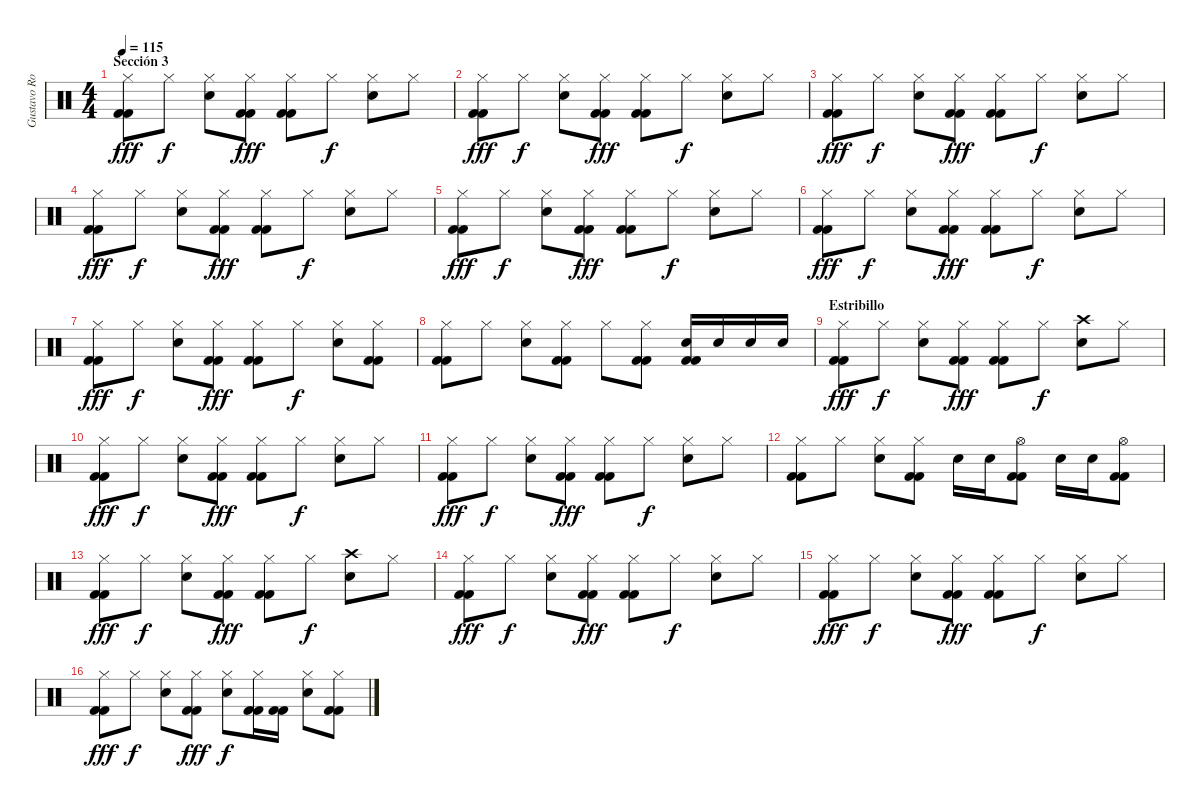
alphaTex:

\track ("Gustavo Rowek" "Gustavo Ro") {instrument percussion}
\staff {score}
\articulation defaults
\ts (4 4)
\section ("" "Sección 3")
\tempo 115
\clef neutral
\ks c
("Kick (hit) 2" "Kick (hit) 2" "Hi-Hat (closed)").8{dy fff} "Hi-Hat (closed)".8{dy f} ("Snare (hit) 2" "Hi-Hat (closed)").8 ("Kick (hit) 2" "Kick (hit) 2" "Hi-Hat (closed)").8{dy fff} ("Kick (hit) 2" "Kick (hit) 2" "Hi-Hat (closed)").8 "Hi-Hat (closed)".8{dy f} ("Snare (hit) 2" "Hi-Hat (closed)").8 "Hi-Hat (closed)".8 |
("Kick (hit) 2" "Kick (hit) 2" "Hi-Hat (closed)").8{dy fff} "Hi-Hat (closed)".8{dy f} ("Snare (hit) 2" "Hi-Hat (closed)").8 ("Kick (hit) 2" "Kick (hit) 2" "Hi-Hat (closed)").8{dy fff} ("Kick (hit) 2" "Kick (hit) 2" "Hi-Hat (closed)").8 "Hi-Hat (closed)".8{dy f} ("Snare (hit) 2" "Hi-Hat (closed)").8 "Hi-Hat (closed)".8 |
("Kick (hit) 2" "Kick (hit) 2" "Hi-Hat (closed)").8{dy fff} "Hi-Hat (closed)".8{dy f} ("Snare (hit) 2" "Hi-Hat (closed)").8 ("Kick (hit) 2" "Kick (hit) 2" "Hi-Hat (closed)").8{dy fff} ("Kick (hit) 2" "Kick (hit) 2" "Hi-Hat (closed)").8 "Hi-Hat (closed)".8{dy f} ("Snare (hit) 2" "Hi-Hat (closed)").8 "Hi-Hat (closed)".8 |
("Kick (hit) 2" "Kick (hit) 2" "Hi-Hat (closed)").8{dy fff} "Hi-Hat (closed)".8{dy f} ("Snare (hit) 2" "Hi-Hat (closed)").8 ("Kick (hit) 2" "Kick (hit) 2" "Hi-Hat (closed)").8{dy fff} ("Kick (hit) 2" "Kick (hit) 2" "Hi-Hat (closed)").8 "Hi-Hat (closed)".8{dy f} ("Snare (hit) 2" "Hi-Hat (closed)").8 "Hi-Hat (closed)".8 |
("Kick (hit) 2" "Kick (hit) 2" "Hi-Hat (closed)").8{dy fff} "Hi-Hat (closed)".8{dy f} ("Snare (hit) 2" "Hi-Hat (closed)").8 ("Kick (hit) 2" "Kick (hit) 2" "Hi-Hat (closed)").8{dy fff} ("Kick (hit) 2" "Kick (hit) 2" "Hi-Hat (closed)").8 "Hi-Hat (closed)".8{dy f} ("Snare (hit) 2" "Hi-Hat (closed)").8 "Hi-Hat (closed)".8 |
("Kick (hit) 2" "Kick (hit) 2" "Hi-Hat (closed)").8{dy fff} "Hi-Hat (closed)".8{dy f} ("Snare (hit) 2" "Hi-Hat (closed)").8 ("Kick (hit) 2" "Kick (hit) 2" "Hi-Hat (closed)").8{dy fff} ("Kick (hit) 2" "Kick (hit) 2" "Hi-Hat (closed)").8 "Hi-Hat (closed)".8{dy f} ("Snare (hit) 2" "Hi-Hat (closed)").8 "Hi-Hat (closed)".8 |
("Kick (hit) 2" "Kick (hit) 2" "Hi-Hat (closed)").8{dy fff} "Hi-Hat (closed)".8{dy f} ("Snare (hit) 2" "Hi-Hat (closed)").8 ("Kick (hit) 2" "Kick (hit) 2" "Hi-Hat (closed)").8{dy fff} ("Kick (hit) 2" "Kick (hit) 2" "Hi-Hat (closed)").8 "Hi-Hat (closed)".8{dy f} ("Snare (hit) 2" "Hi-Hat (closed)").8 ("Kick (hit) 2" "Kick (hit) 2" "Hi-Hat (closed)").8 |
("Kick (hit) 2" "Kick (hit) 2" "Hi-Hat (closed)").8 "Hi-Hat (closed)".8 ("Snare (hit) 2" "Hi-Hat (closed)").8 ("Kick (hit) 2" "Kick (hit) 2" "Hi-Hat (closed)").8 "Hi-Hat (closed)".8 ("Kick (hit) 2" "Kick (hit) 2" "Hi-Hat (closed)").8 ("Kick (hit) 2" "Kick (hit) 2" "Snare (hit) 2").16 "Snare (hit) 2".16 "Snare (hit) 2".16 "Snare (hit) 2".16 |
\section ("" "Estribillo")
("Kick (hit) 2" "Kick (hit) 2" "Hi-Hat (closed)").8{dy fff} "Hi-Hat (closed)".8{dy f} ("Snare (hit) 2" "Hi-Hat (closed)").8 ("Kick (hit) 2" "Kick (hit) 2" "Hi-Hat (closed)").8{dy fff} ("Kick (hit) 2" "Kick (hit) 2" "Hi-Hat (closed)").8 "Hi-Hat (closed)".8{dy f} ("Snare (hit) 2" "Crash high (hit)").8 "Hi-Hat (closed)".8 |
("Kick (hit) 2" "Kick (hit) 2" "Hi-Hat (closed)").8{dy fff} "Hi-Hat (closed)".8{dy f} ("Snare (hit) 2" "Hi-Hat (closed)").8 ("Kick (hit) 2" "Kick (hit) 2" "Hi-Hat (closed)").8{dy fff} ("Kick (hit) 2" "Kick (hit) 2" "Hi-Hat (closed)").8 "Hi-Hat (closed)".8{dy f} ("Snare (hit) 2" "Hi-Hat (closed)").8 "Hi-Hat (closed)".8 |
("Kick (hit) 2" "Kick (hit) 2" "Hi-Hat (closed)").8{dy fff} "Hi-Hat (closed)".8{dy f} ("Snare (hit) 2" "Hi-Hat (closed)").8 ("Kick (hit) 2" "Kick (hit) 2" "Hi-Hat (closed)").8{dy fff} ("Kick (hit) 2" "Kick (hit) 2" "Hi-Hat (closed)").8 "Hi-Hat (closed)".8{dy f} ("Snare (hit) 2" "Hi-Hat (closed)").8 "Hi-Hat (closed)".8 |
("Kick (hit) 2" "Kick (hit) 2" "Hi-Hat (closed)").8 "Hi-Hat (closed)".8 ("Snare (hit) 2" "Hi-Hat (closed)").8 ("Kick (hit) 2" "Kick (hit) 2" "Hi-Hat (closed)").8 "Snare (hit) 2".16 "Snare (hit) 2".16 ("Kick (hit) 2" "Kick (hit) 2" "Hi-Hat (open)").8 "Snare (hit) 2".16 "Snare (hit) 2".16 ("Kick (hit) 2" "Kick (hit) 2" "Hi-Hat (open)").8 |
("Kick (hit) 2" "Kick (hit) 2" "Hi-Hat (closed)").8{dy fff} "Hi-Hat (closed)".8{dy f} ("Snare (hit) 2" "Hi-Hat (closed)").8 ("Kick (hit) 2" "Kick (hit) 2" "Hi-Hat (closed)").8{dy fff} ("Kick (hit) 2" "Kick (hit) 2" "Hi-Hat (closed)").8 "Hi-Hat (closed)".8{dy f} ("Snare (hit) 2" "Crash high (hit)").8 "Hi-Hat (closed)".8 |
("Kick (hit) 2" "Kick (hit) 2" "Hi-Hat (closed)").8{dy fff} "Hi-Hat (closed)".8{dy f} ("Snare (hit) 2" "Hi-Hat (closed)").8 ("Kick (hit) 2" "Kick (hit) 2" "Hi-Hat (closed)").8{dy fff} ("Kick (hit) 2" "Kick (hit) 2" "Hi-Hat (closed)").8 "Hi-Hat (closed)".8{dy f} ("Snare (hit) 2" "Hi-Hat (closed)").8 "Hi-Hat (closed)".8 |
("Kick (hit) 2" "Kick (hit) 2" "Hi-Hat (closed)").8{dy fff} "Hi-Hat (closed)".8{dy f} ("Snare (hit) 2" "Hi-Hat (closed)").8 ("Kick (hit) 2" "Kick (hit) 2" "Hi-Hat (closed)").8{dy fff} ("Kick (hit) 2" "Kick (hit) 2" "Hi-Hat (closed)").8 "Hi-Hat (closed)".8{dy f} ("Snare (hit) 2" "Hi-Hat (closed)").8 "Hi-Hat (closed)".8 |
("Kick (hit) 2" "Kick (hit) 2" "Hi-Hat (closed)").8{dy fff} "Hi-Hat (closed)".8{dy f} ("Snare (hit) 2" "Hi-Hat (closed)").8 ("Kick (hit) 2" "Kick (hit) 2" "Hi-Hat (closed)").8{dy fff} ("Snare (hit) 2" "Hi-Hat (closed)").8{dy f} ("Kick (hit) 2" "Kick (hit) 2" "Hi-Hat (closed)").16 ("Kick (hit) 2" "Kick (hit) 2").16 ("Snare (hit) 2" "Hi-Hat (closed)").8 ("Kick (hit) 2" "Kick (hit) 2" "Hi-Hat (closed)").8
